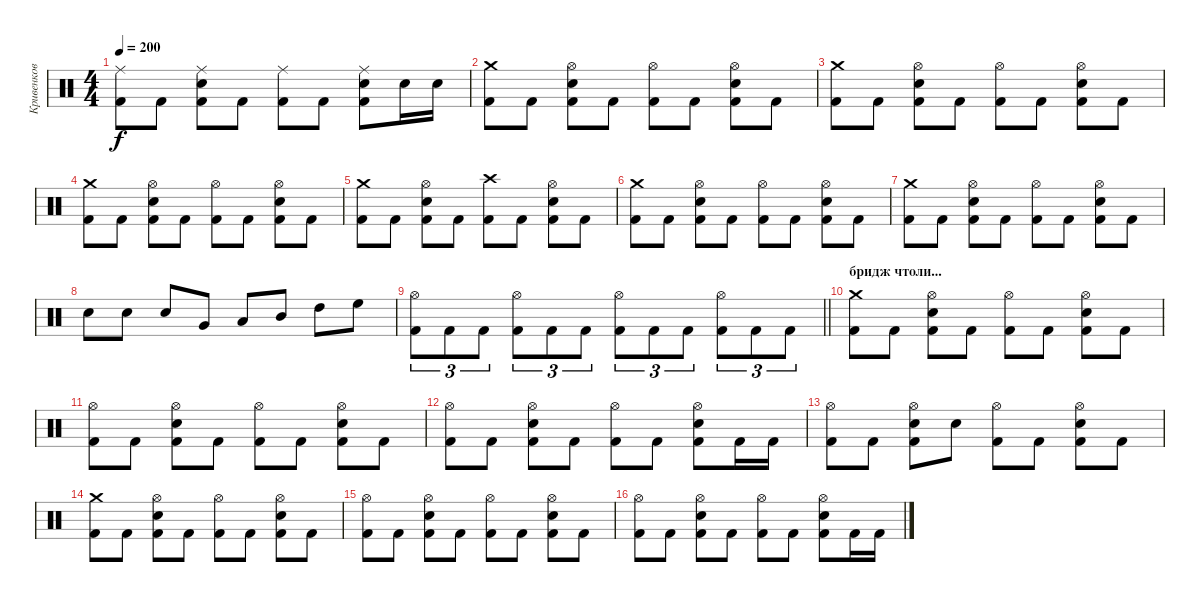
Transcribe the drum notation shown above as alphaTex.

\track ("Кривенков" "Кривенков") {instrument percussion}
\staff {score}
\articulation defaults
\ts (4 4)
\tempo 200
\clef neutral
\ks c
("Ride (middle)" "Kick (hit) 2").8{dy f} "Kick (hit) 2".8 ("Ride (middle)" "Electric Snare (hit)" "Kick (hit) 2").8 "Kick (hit) 2".8 ("Ride (middle)" "Kick (hit) 2").8 "Kick (hit) 2".8 ("Ride (middle)" "Electric Snare (hit)" "Kick (hit) 2").8 "Electric Snare (hit)".16 "Electric Snare (hit)".16 |
("Crash medium (hit)" "Kick (hit) 2").8 "Kick (hit) 2".8 ("Hi-Hat (open)" "Electric Snare (hit)" "Kick (hit) 2").8 "Kick (hit) 2".8 ("Hi-Hat (open)" "Kick (hit) 2").8 "Kick (hit) 2".8 ("Hi-Hat (open)" "Electric Snare (hit)" "Kick (hit) 2").8 "Kick (hit) 2".8 |
("Crash medium (hit)" "Kick (hit) 2").8 "Kick (hit) 2".8 ("Hi-Hat (open)" "Electric Snare (hit)" "Kick (hit) 2").8 "Kick (hit) 2".8 ("Hi-Hat (open)" "Kick (hit) 2").8 "Kick (hit) 2".8 ("Hi-Hat (open)" "Electric Snare (hit)" "Kick (hit) 2").8 "Kick (hit) 2".8 |
("Crash medium (hit)" "Kick (hit) 2").8 "Kick (hit) 2".8 ("Hi-Hat (open)" "Electric Snare (hit)" "Kick (hit) 2").8 "Kick (hit) 2".8 ("Hi-Hat (open)" "Kick (hit) 2").8 "Kick (hit) 2".8 ("Hi-Hat (open)" "Electric Snare (hit)" "Kick (hit) 2").8 "Kick (hit) 2".8 |
("Crash medium (hit)" "Kick (hit) 2").8 "Kick (hit) 2".8 ("Hi-Hat (open)" "Electric Snare (hit)" "Kick (hit) 2").8 "Kick (hit) 2".8 ("Crash high (hit)" "Kick (hit) 2").8 "Kick (hit) 2".8 ("Hi-Hat (open)" "Electric Snare (hit)" "Kick (hit) 2").8 "Kick (hit) 2".8 |
("Crash medium (hit)" "Kick (hit) 2").8 "Kick (hit) 2".8 ("Hi-Hat (open)" "Electric Snare (hit)" "Kick (hit) 2").8 "Kick (hit) 2".8 ("Hi-Hat (open)" "Kick (hit) 2").8 "Kick (hit) 2".8 ("Hi-Hat (open)" "Electric Snare (hit)" "Kick (hit) 2").8 "Kick (hit) 2".8 |
("Crash medium (hit)" "Kick (hit) 2").8 "Kick (hit) 2".8 ("Hi-Hat (open)" "Electric Snare (hit)" "Kick (hit) 2").8 "Kick (hit) 2".8 ("Hi-Hat (open)" "Kick (hit) 2").8 "Kick (hit) 2".8 ("Hi-Hat (open)" "Electric Snare (hit)" "Kick (hit) 2").8 "Kick (hit) 2".8 |
"Electric Snare (hit)".8 "Electric Snare (hit)".8 "Electric Snare (hit)".8 "Very Low Tom (hit)".8 "Low Tom (hit)".8 "Mid Tom (hit)".8 "High Tom (hit)".8 "High Floor Tom (hit)".8 |
\barLineRight lightlight
("Hi-Hat (open)" "Kick (hit) 2").8{tu (3 2)} "Kick (hit) 2".8{tu (3 2)} "Kick (hit) 2".8{tu (3 2)} ("Hi-Hat (open)" "Kick (hit) 2").8{tu (3 2)} "Kick (hit) 2".8{tu (3 2)} "Kick (hit) 2".8{tu (3 2)} ("Hi-Hat (open)" "Kick (hit) 2").8{tu (3 2)} "Kick (hit) 2".8{tu (3 2)} "Kick (hit) 2".8{tu (3 2)} ("Hi-Hat (open)" "Kick (hit) 2").8{tu (3 2)} "Kick (hit) 2".8{tu (3 2)} "Kick (hit) 2".8{tu (3 2)} |
\section ("" "бридж чтоли...")
("Crash medium (hit)" "Kick (hit) 2").8 "Kick (hit) 2".8 ("Hi-Hat (open)" "Electric Snare (hit)" "Kick (hit) 2").8 "Kick (hit) 2".8 ("Hi-Hat (open)" "Kick (hit) 2").8 "Kick (hit) 2".8 ("Hi-Hat (open)" "Electric Snare (hit)" "Kick (hit) 2").8 "Kick (hit) 2".8 |
("Hi-Hat (open)" "Kick (hit) 2").8 "Kick (hit) 2".8 ("Hi-Hat (open)" "Electric Snare (hit)" "Kick (hit) 2").8 "Kick (hit) 2".8 ("Hi-Hat (open)" "Kick (hit) 2").8 "Kick (hit) 2".8 ("Hi-Hat (open)" "Electric Snare (hit)" "Kick (hit) 2").8 "Kick (hit) 2".8 |
("Hi-Hat (open)" "Kick (hit) 2").8 "Kick (hit) 2".8 ("Hi-Hat (open)" "Electric Snare (hit)" "Kick (hit) 2").8 "Kick (hit) 2".8 ("Hi-Hat (open)" "Kick (hit) 2").8 "Kick (hit) 2".8 ("Hi-Hat (open)" "Electric Snare (hit)" "Kick (hit) 2").8 "Kick (hit) 2".16 "Kick (hit) 2".16 |
("Hi-Hat (open)" "Kick (hit) 2").8 "Kick (hit) 2".8 ("Hi-Hat (open)" "Electric Snare (hit)" "Kick (hit) 2").8 "Electric Snare (hit)".8 ("Hi-Hat (open)" "Kick (hit) 2").8 "Kick (hit) 2".8 ("Hi-Hat (open)" "Electric Snare (hit)" "Kick (hit) 2").8 "Kick (hit) 2".8 |
("Crash medium (hit)" "Kick (hit) 2").8 "Kick (hit) 2".8 ("Hi-Hat (open)" "Electric Snare (hit)" "Kick (hit) 2").8 "Kick (hit) 2".8 ("Hi-Hat (open)" "Kick (hit) 2").8 "Kick (hit) 2".8 ("Hi-Hat (open)" "Electric Snare (hit)" "Kick (hit) 2").8 "Kick (hit) 2".8 |
("Hi-Hat (open)" "Kick (hit) 2").8 "Kick (hit) 2".8 ("Hi-Hat (open)" "Electric Snare (hit)" "Kick (hit) 2").8 "Kick (hit) 2".8 ("Hi-Hat (open)" "Kick (hit) 2").8 "Kick (hit) 2".8 ("Hi-Hat (open)" "Electric Snare (hit)" "Kick (hit) 2").8 "Kick (hit) 2".8 |
("Hi-Hat (open)" "Kick (hit) 2").8 "Kick (hit) 2".8 ("Hi-Hat (open)" "Electric Snare (hit)" "Kick (hit) 2").8 "Kick (hit) 2".8 ("Hi-Hat (open)" "Kick (hit) 2").8 "Kick (hit) 2".8 ("Hi-Hat (open)" "Electric Snare (hit)" "Kick (hit) 2").8 "Kick (hit) 2".16 "Kick (hit) 2".16
